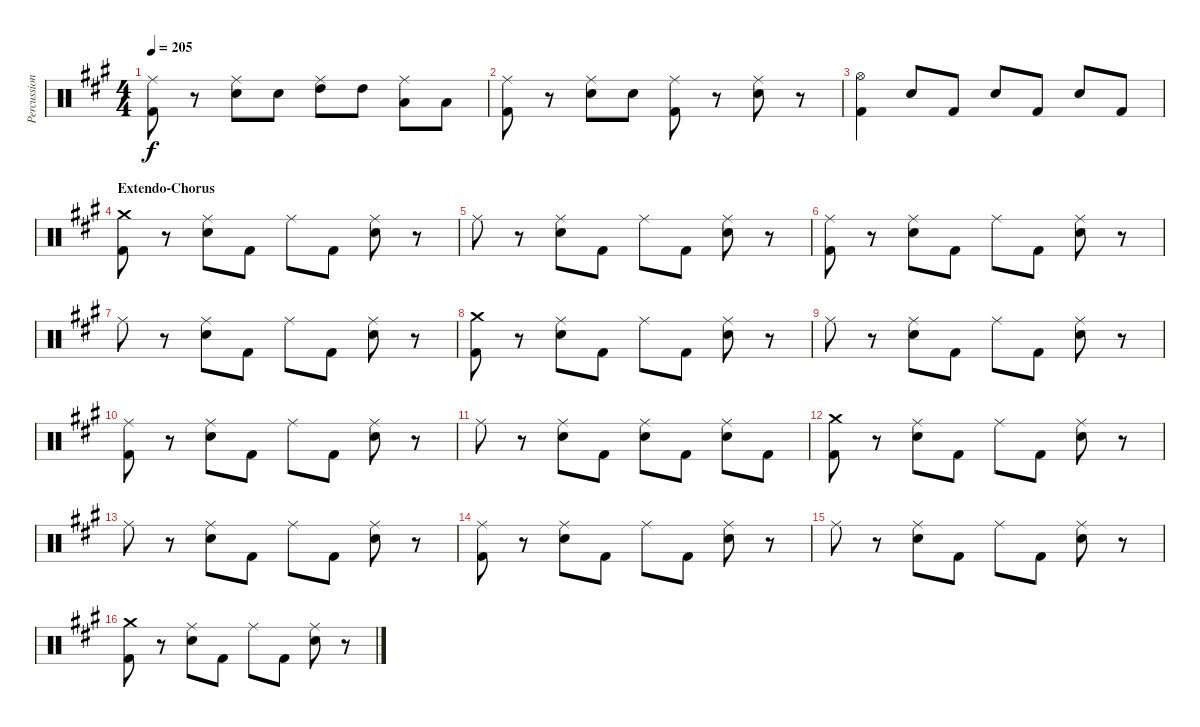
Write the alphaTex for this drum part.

\track ("Percussion" "Percussion") {instrument percussion}
\staff {score}
\articulation defaults
\ts (4 4)
\tempo 205
\clef neutral
\ks a
("Ride (middle)" "Kick (hit) 2").8{dy f} r.8 ("Ride (middle)" "Snare (hit) 2").8 "Snare (hit) 2".8 ("Ride (middle)" "High Tom (hit)").8 "High Tom (hit)".8 ("Ride (middle)" "Low Tom (hit)").8 "Low Tom (hit)".8 |
("Ride (middle)" "Kick (hit) 2").8 r.8 ("Ride (middle)" "Snare (hit) 2").8 "Snare (hit) 2".8 ("Ride (middle)" "Kick (hit) 2").8 r.8 ("Ride (middle)" "Snare (hit) 2").8 r.8 |
("Hi-Hat (open)" "Kick (hit) 2").4 "Snare (hit) 2".8 "Kick (hit) 2".8 "Snare (hit) 2".8 "Kick (hit) 2".8 "Snare (hit) 2".8 "Kick (hit) 2".8 |
\section ("" "Extendo-Chorus")
("Crash medium (hit)" "Kick (hit) 2").8 r.8 ("Ride (middle)" "Snare (hit) 2").8 "Kick (hit) 2".8 "Ride (middle)".8 "Kick (hit) 2".8 ("Ride (middle)" "Snare (hit) 2").8 r.8 |
"Ride (middle)".8 r.8 ("Ride (middle)" "Snare (hit) 2").8 "Kick (hit) 2".8 "Ride (middle)".8 "Kick (hit) 2".8 ("Ride (middle)" "Snare (hit) 2").8 r.8 |
("Ride (middle)" "Kick (hit) 2").8 r.8 ("Ride (middle)" "Snare (hit) 2").8 "Kick (hit) 2".8 "Ride (middle)".8 "Kick (hit) 2".8 ("Ride (middle)" "Snare (hit) 2").8 r.8 |
"Ride (middle)".8 r.8 ("Ride (middle)" "Snare (hit) 2").8 "Kick (hit) 2".8 "Ride (middle)".8 "Kick (hit) 2".8 ("Ride (middle)" "Snare (hit) 2").8 r.8 |
("Crash medium (hit)" "Kick (hit) 2").8 r.8 ("Ride (middle)" "Snare (hit) 2").8 "Kick (hit) 2".8 "Ride (middle)".8 "Kick (hit) 2".8 ("Ride (middle)" "Snare (hit) 2").8 r.8 |
"Ride (middle)".8 r.8 ("Ride (middle)" "Snare (hit) 2").8 "Kick (hit) 2".8 "Ride (middle)".8 "Kick (hit) 2".8 ("Ride (middle)" "Snare (hit) 2").8 r.8 |
("Ride (middle)" "Kick (hit) 2").8 r.8 ("Ride (middle)" "Snare (hit) 2").8 "Kick (hit) 2".8 "Ride (middle)".8 "Kick (hit) 2".8 ("Ride (middle)" "Snare (hit) 2").8 r.8 |
"Ride (middle)".8 r.8 ("Ride (middle)" "Snare (hit) 2").8 "Kick (hit) 2".8 ("Ride (middle)" "Snare (hit) 2").8 "Kick (hit) 2".8 ("Ride (middle)" "Snare (hit) 2").8 "Kick (hit) 2".8 |
("Crash medium (hit)" "Kick (hit) 2").8 r.8 ("Ride (middle)" "Snare (hit) 2").8 "Kick (hit) 2".8 "Ride (middle)".8 "Kick (hit) 2".8 ("Ride (middle)" "Snare (hit) 2").8 r.8 |
"Ride (middle)".8 r.8 ("Ride (middle)" "Snare (hit) 2").8 "Kick (hit) 2".8 "Ride (middle)".8 "Kick (hit) 2".8 ("Ride (middle)" "Snare (hit) 2").8 r.8 |
("Ride (middle)" "Kick (hit) 2").8 r.8 ("Ride (middle)" "Snare (hit) 2").8 "Kick (hit) 2".8 "Ride (middle)".8 "Kick (hit) 2".8 ("Ride (middle)" "Snare (hit) 2").8 r.8 |
"Ride (middle)".8 r.8 ("Ride (middle)" "Snare (hit) 2").8 "Kick (hit) 2".8 "Ride (middle)".8 "Kick (hit) 2".8 ("Ride (middle)" "Snare (hit) 2").8 r.8 |
("Crash medium (hit)" "Kick (hit) 2").8 r.8 ("Ride (middle)" "Snare (hit) 2").8 "Kick (hit) 2".8 "Ride (middle)".8 "Kick (hit) 2".8 ("Ride (middle)" "Snare (hit) 2").8 r.8
